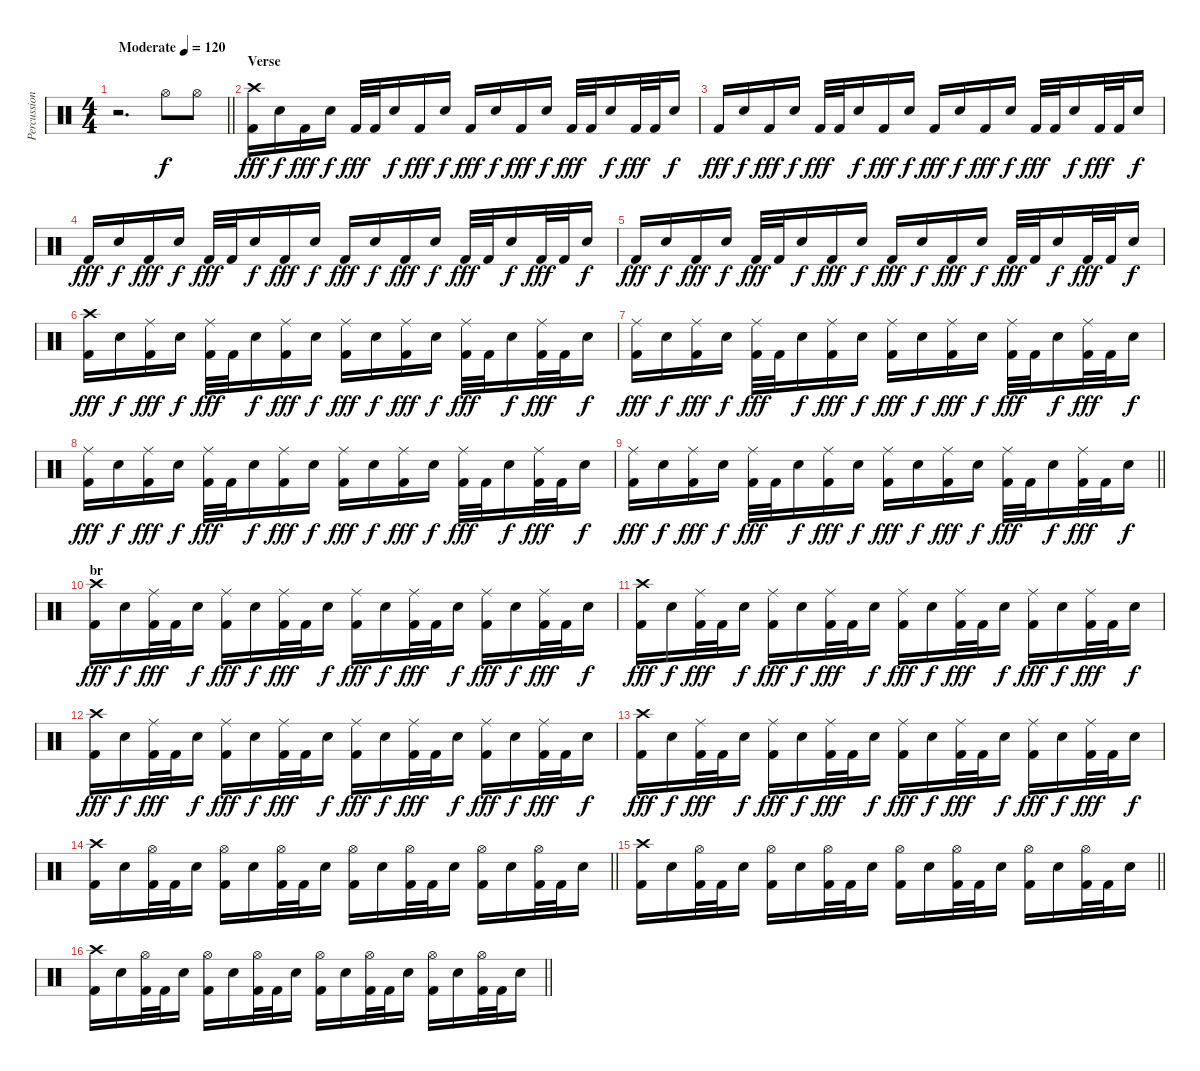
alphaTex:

\track ("Percussion" "Percussion") {instrument percussion}
\staff {score}
\articulation defaults
\ts (4 4)
\tempo (120 "Moderate")
\clef neutral
\barLineRight lightlight
\ks c
r.2{d dy f} "Hi-Hat (open)".8 "Hi-Hat (open)".8 |
\section ("" "Verse")
("Crash high (hit)" "Kick (hit) 2").16{dy fff} "Snare (hit) 2".16{dy f} "Kick (hit) 2".16{dy fff} "Snare (hit) 2".16{dy f} "Kick (hit) 2".32{dy fff} "Kick (hit) 2".32 "Snare (hit) 2".16{dy f} "Kick (hit) 2".16{dy fff} "Snare (hit) 2".16{dy f} "Kick (hit) 2".16{dy fff} "Snare (hit) 2".16{dy f} "Kick (hit) 2".16{dy fff} "Snare (hit) 2".16{dy f} "Kick (hit) 2".32{dy fff} "Kick (hit) 2".32 "Snare (hit) 2".16{dy f} "Kick (hit) 2".32{dy fff} "Kick (hit) 2".32 "Snare (hit) 2".16{dy f} |
"Kick (hit) 2".16{dy fff} "Snare (hit) 2".16{dy f} "Kick (hit) 2".16{dy fff} "Snare (hit) 2".16{dy f} "Kick (hit) 2".32{dy fff} "Kick (hit) 2".32 "Snare (hit) 2".16{dy f} "Kick (hit) 2".16{dy fff} "Snare (hit) 2".16{dy f} "Kick (hit) 2".16{dy fff} "Snare (hit) 2".16{dy f} "Kick (hit) 2".16{dy fff} "Snare (hit) 2".16{dy f} "Kick (hit) 2".32{dy fff} "Kick (hit) 2".32 "Snare (hit) 2".16{dy f} "Kick (hit) 2".32{dy fff} "Kick (hit) 2".32 "Snare (hit) 2".16{dy f} |
"Kick (hit) 2".16{dy fff} "Snare (hit) 2".16{dy f} "Kick (hit) 2".16{dy fff} "Snare (hit) 2".16{dy f} "Kick (hit) 2".32{dy fff} "Kick (hit) 2".32 "Snare (hit) 2".16{dy f} "Kick (hit) 2".16{dy fff} "Snare (hit) 2".16{dy f} "Kick (hit) 2".16{dy fff} "Snare (hit) 2".16{dy f} "Kick (hit) 2".16{dy fff} "Snare (hit) 2".16{dy f} "Kick (hit) 2".32{dy fff} "Kick (hit) 2".32 "Snare (hit) 2".16{dy f} "Kick (hit) 2".32{dy fff} "Kick (hit) 2".32 "Snare (hit) 2".16{dy f} |
"Kick (hit) 2".16{dy fff} "Snare (hit) 2".16{dy f} "Kick (hit) 2".16{dy fff} "Snare (hit) 2".16{dy f} "Kick (hit) 2".32{dy fff} "Kick (hit) 2".32 "Snare (hit) 2".16{dy f} "Kick (hit) 2".16{dy fff} "Snare (hit) 2".16{dy f} "Kick (hit) 2".16{dy fff} "Snare (hit) 2".16{dy f} "Kick (hit) 2".16{dy fff} "Snare (hit) 2".16{dy f} "Kick (hit) 2".32{dy fff} "Kick (hit) 2".32 "Snare (hit) 2".16{dy f} "Kick (hit) 2".32{dy fff} "Kick (hit) 2".32 "Snare (hit) 2".16{dy f} |
("Crash high (hit)" "Kick (hit) 2").16{dy fff} "Snare (hit) 2".16{dy f} ("Ride (middle)" "Kick (hit) 2").16{dy fff} "Snare (hit) 2".16{dy f} ("Ride (middle)" "Kick (hit) 2").32{dy fff} "Kick (hit) 2".32 "Snare (hit) 2".16{dy f} ("Ride (middle)" "Kick (hit) 2").16{dy fff} "Snare (hit) 2".16{dy f} ("Ride (middle)" "Kick (hit) 2").16{dy fff} "Snare (hit) 2".16{dy f} ("Ride (middle)" "Kick (hit) 2").16{dy fff} "Snare (hit) 2".16{dy f} ("Ride (middle)" "Kick (hit) 2").32{dy fff} "Kick (hit) 2".32 "Snare (hit) 2".16{dy f} ("Ride (middle)" "Kick (hit) 2").32{dy fff} "Kick (hit) 2".32 "Snare (hit) 2".16{dy f} |
("Ride (middle)" "Kick (hit) 2").16{dy fff} "Snare (hit) 2".16{dy f} ("Ride (middle)" "Kick (hit) 2").16{dy fff} "Snare (hit) 2".16{dy f} ("Ride (middle)" "Kick (hit) 2").32{dy fff} "Kick (hit) 2".32 "Snare (hit) 2".16{dy f} ("Ride (middle)" "Kick (hit) 2").16{dy fff} "Snare (hit) 2".16{dy f} ("Ride (middle)" "Kick (hit) 2").16{dy fff} "Snare (hit) 2".16{dy f} ("Ride (middle)" "Kick (hit) 2").16{dy fff} "Snare (hit) 2".16{dy f} ("Ride (middle)" "Kick (hit) 2").32{dy fff} "Kick (hit) 2".32 "Snare (hit) 2".16{dy f} ("Ride (middle)" "Kick (hit) 2").32{dy fff} "Kick (hit) 2".32 "Snare (hit) 2".16{dy f} |
("Ride (middle)" "Kick (hit) 2").16{dy fff} "Snare (hit) 2".16{dy f} ("Ride (middle)" "Kick (hit) 2").16{dy fff} "Snare (hit) 2".16{dy f} ("Ride (middle)" "Kick (hit) 2").32{dy fff} "Kick (hit) 2".32 "Snare (hit) 2".16{dy f} ("Ride (middle)" "Kick (hit) 2").16{dy fff} "Snare (hit) 2".16{dy f} ("Ride (middle)" "Kick (hit) 2").16{dy fff} "Snare (hit) 2".16{dy f} ("Ride (middle)" "Kick (hit) 2").16{dy fff} "Snare (hit) 2".16{dy f} ("Ride (middle)" "Kick (hit) 2").32{dy fff} "Kick (hit) 2".32 "Snare (hit) 2".16{dy f} ("Ride (middle)" "Kick (hit) 2").32{dy fff} "Kick (hit) 2".32 "Snare (hit) 2".16{dy f} |
\barLineRight lightlight
("Ride (middle)" "Kick (hit) 2").16{dy fff} "Snare (hit) 2".16{dy f} ("Ride (middle)" "Kick (hit) 2").16{dy fff} "Snare (hit) 2".16{dy f} ("Ride (middle)" "Kick (hit) 2").32{dy fff} "Kick (hit) 2".32 "Snare (hit) 2".16{dy f} ("Ride (middle)" "Kick (hit) 2").16{dy fff} "Snare (hit) 2".16{dy f} ("Ride (middle)" "Kick (hit) 2").16{dy fff} "Snare (hit) 2".16{dy f} ("Ride (middle)" "Kick (hit) 2").16{dy fff} "Snare (hit) 2".16{dy f} ("Ride (middle)" "Kick (hit) 2").32{dy fff} "Kick (hit) 2".32 "Snare (hit) 2".16{dy f} ("Ride (middle)" "Kick (hit) 2").32{dy fff} "Kick (hit) 2".32 "Snare (hit) 2".16{dy f} |
\section ("" "br")
("Crash high (hit)" "Kick (hit) 2").16{dy fff} "Snare (hit) 2".16{dy f} ("Ride (middle)" "Kick (hit) 2").32{dy fff} "Kick (hit) 2".32 "Snare (hit) 2".16{dy f} ("Ride (middle)" "Kick (hit) 2").16{dy fff} "Snare (hit) 2".16{dy f} ("Ride (middle)" "Kick (hit) 2").32{dy fff} "Kick (hit) 2".32 "Snare (hit) 2".16{dy f} ("Ride (middle)" "Kick (hit) 2").16{dy fff} "Snare (hit) 2".16{dy f} ("Ride (middle)" "Kick (hit) 2").32{dy fff} "Kick (hit) 2".32 "Snare (hit) 2".16{dy f} ("Ride (middle)" "Kick (hit) 2").16{dy fff} "Snare (hit) 2".16{dy f} ("Ride (middle)" "Kick (hit) 2").32{dy fff} "Kick (hit) 2".32 "Snare (hit) 2".16{dy f} |
("Crash high (hit)" "Kick (hit) 2").16{dy fff} "Snare (hit) 2".16{dy f} ("Ride (middle)" "Kick (hit) 2").32{dy fff} "Kick (hit) 2".32 "Snare (hit) 2".16{dy f} ("Ride (middle)" "Kick (hit) 2").16{dy fff} "Snare (hit) 2".16{dy f} ("Ride (middle)" "Kick (hit) 2").32{dy fff} "Kick (hit) 2".32 "Snare (hit) 2".16{dy f} ("Ride (middle)" "Kick (hit) 2").16{dy fff} "Snare (hit) 2".16{dy f} ("Ride (middle)" "Kick (hit) 2").32{dy fff} "Kick (hit) 2".32 "Snare (hit) 2".16{dy f} ("Ride (middle)" "Kick (hit) 2").16{dy fff} "Snare (hit) 2".16{dy f} ("Ride (middle)" "Kick (hit) 2").32{dy fff} "Kick (hit) 2".32 "Snare (hit) 2".16{dy f} |
("Crash high (hit)" "Kick (hit) 2").16{dy fff} "Snare (hit) 2".16{dy f} ("Ride (middle)" "Kick (hit) 2").32{dy fff} "Kick (hit) 2".32 "Snare (hit) 2".16{dy f} ("Ride (middle)" "Kick (hit) 2").16{dy fff} "Snare (hit) 2".16{dy f} ("Ride (middle)" "Kick (hit) 2").32{dy fff} "Kick (hit) 2".32 "Snare (hit) 2".16{dy f} ("Ride (middle)" "Kick (hit) 2").16{dy fff} "Snare (hit) 2".16{dy f} ("Ride (middle)" "Kick (hit) 2").32{dy fff} "Kick (hit) 2".32 "Snare (hit) 2".16{dy f} ("Ride (middle)" "Kick (hit) 2").16{dy fff} "Snare (hit) 2".16{dy f} ("Ride (middle)" "Kick (hit) 2").32{dy fff} "Kick (hit) 2".32 "Snare (hit) 2".16{dy f} |
("Crash high (hit)" "Kick (hit) 2").16{dy fff} "Snare (hit) 2".16{dy f} ("Ride (middle)" "Kick (hit) 2").32{dy fff} "Kick (hit) 2".32 "Snare (hit) 2".16{dy f} ("Ride (middle)" "Kick (hit) 2").16{dy fff} "Snare (hit) 2".16{dy f} ("Ride (middle)" "Kick (hit) 2").32{dy fff} "Kick (hit) 2".32 "Snare (hit) 2".16{dy f} ("Ride (middle)" "Kick (hit) 2").16{dy fff} "Snare (hit) 2".16{dy f} ("Ride (middle)" "Kick (hit) 2").32{dy fff} "Kick (hit) 2".32 "Snare (hit) 2".16{dy f} ("Ride (middle)" "Kick (hit) 2").16{dy fff} "Snare (hit) 2".16{dy f} ("Ride (middle)" "Kick (hit) 2").32{dy fff} "Kick (hit) 2".32 "Snare (hit) 2".16{dy f} |
\barLineRight lightlight
("Crash high (hit)" "Kick (hit) 2").16 "Snare (hit) 2".16 ("Hi-Hat (open)" "Kick (hit) 2").32 "Kick (hit) 2".32 "Snare (hit) 2".16 ("Hi-Hat (open)" "Kick (hit) 2").16 "Snare (hit) 2".16 ("Hi-Hat (open)" "Kick (hit) 2").32 "Kick (hit) 2".32 "Snare (hit) 2".16 ("Hi-Hat (open)" "Kick (hit) 2").16 "Snare (hit) 2".16 ("Hi-Hat (open)" "Kick (hit) 2").32 "Kick (hit) 2".32 "Snare (hit) 2".16 ("Hi-Hat (open)" "Kick (hit) 2").16 "Snare (hit) 2".16 ("Hi-Hat (open)" "Kick (hit) 2").32 "Kick (hit) 2".32 "Snare (hit) 2".16 |
\barLineRight lightlight
("Crash high (hit)" "Kick (hit) 2").16 "Snare (hit) 2".16 ("Hi-Hat (open)" "Kick (hit) 2").32 "Kick (hit) 2".32 "Snare (hit) 2".16 ("Hi-Hat (open)" "Kick (hit) 2").16 "Snare (hit) 2".16 ("Hi-Hat (open)" "Kick (hit) 2").32 "Kick (hit) 2".32 "Snare (hit) 2".16 ("Hi-Hat (open)" "Kick (hit) 2").16 "Snare (hit) 2".16 ("Hi-Hat (open)" "Kick (hit) 2").32 "Kick (hit) 2".32 "Snare (hit) 2".16 ("Hi-Hat (open)" "Kick (hit) 2").16 "Snare (hit) 2".16 ("Hi-Hat (open)" "Kick (hit) 2").32 "Kick (hit) 2".32 "Snare (hit) 2".16 |
\barLineRight lightlight
("Crash high (hit)" "Kick (hit) 2").16 "Snare (hit) 2".16 ("Hi-Hat (open)" "Kick (hit) 2").32 "Kick (hit) 2".32 "Snare (hit) 2".16 ("Hi-Hat (open)" "Kick (hit) 2").16 "Snare (hit) 2".16 ("Hi-Hat (open)" "Kick (hit) 2").32 "Kick (hit) 2".32 "Snare (hit) 2".16 ("Hi-Hat (open)" "Kick (hit) 2").16 "Snare (hit) 2".16 ("Hi-Hat (open)" "Kick (hit) 2").32 "Kick (hit) 2".32 "Snare (hit) 2".16 ("Hi-Hat (open)" "Kick (hit) 2").16 "Snare (hit) 2".16 ("Hi-Hat (open)" "Kick (hit) 2").32 "Kick (hit) 2".32 "Snare (hit) 2".16
